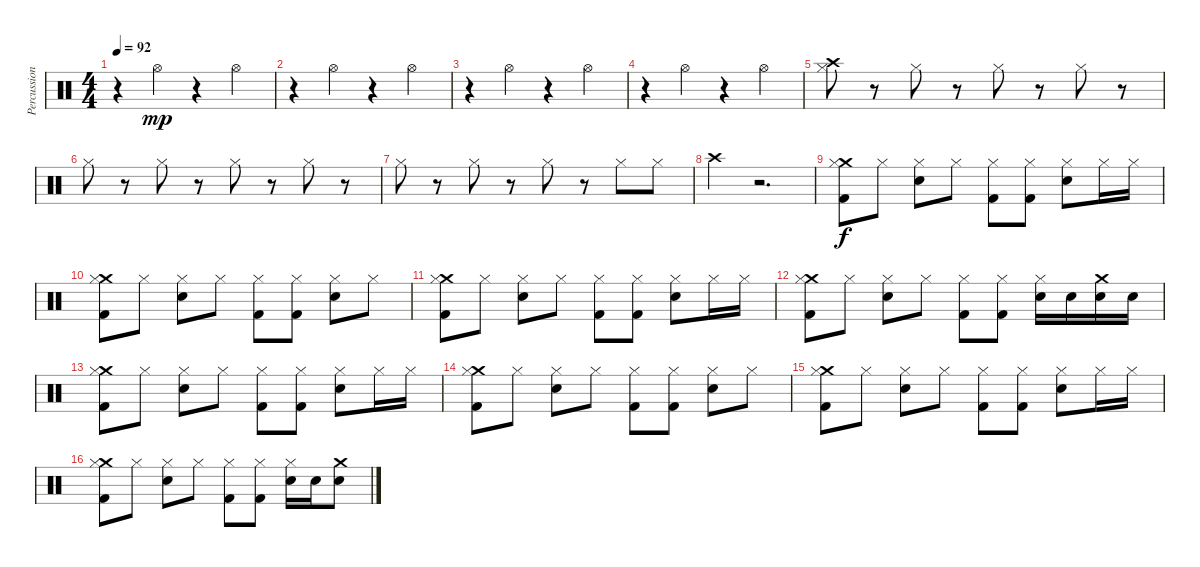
\track ("Percussion" "Percussion") {instrument percussion}
\staff {score}
\articulation defaults
\ts (4 4)
\tempo 92
\clef neutral
\ks c
r.4{dy mp} "Hi-Hat (open)".4 r.4 "Hi-Hat (open)".4 |
r.4 "Hi-Hat (open)".4 r.4 "Hi-Hat (open)".4 |
r.4 "Hi-Hat (open)".4 r.4 "Hi-Hat (open)".4 |
r.4 "Hi-Hat (open)".4 r.4 "Hi-Hat (open)".4 |
("Crash high (hit)" "Hi-Hat (closed)").8 r.8 "Hi-Hat (closed)".8 r.8 "Hi-Hat (closed)".8 r.8 "Hi-Hat (closed)".8 r.8 |
"Hi-Hat (closed)".8 r.8 "Hi-Hat (closed)".8 r.8 "Hi-Hat (closed)".8 r.8 "Hi-Hat (closed)".8 r.8 |
"Hi-Hat (closed)".8 r.8 "Hi-Hat (closed)".8 r.8 "Hi-Hat (closed)".8 r.8 "Hi-Hat (closed)".8 "Hi-Hat (closed)".8 |
"Crash high (hit)".4 r.2{d} |
("Crash medium (hit)" "Hi-Hat (closed)" "Kick (hit) 2").8{dy f} "Hi-Hat (closed)".8 ("Hi-Hat (closed)" "Electric Snare (hit)").8 "Hi-Hat (closed)".8 ("Hi-Hat (closed)" "Kick (hit) 2").8 ("Hi-Hat (closed)" "Kick (hit) 2").8 ("Hi-Hat (closed)" "Electric Snare (hit)").8 "Hi-Hat (closed)".16 "Hi-Hat (closed)".16 |
("Crash medium (hit)" "Hi-Hat (closed)" "Kick (hit) 2").8 "Hi-Hat (closed)".8 ("Hi-Hat (closed)" "Electric Snare (hit)").8 "Hi-Hat (closed)".8 ("Hi-Hat (closed)" "Kick (hit) 2").8 ("Hi-Hat (closed)" "Kick (hit) 2").8 ("Hi-Hat (closed)" "Electric Snare (hit)").8 "Hi-Hat (closed)".8 |
("Crash medium (hit)" "Hi-Hat (closed)" "Kick (hit) 2").8 "Hi-Hat (closed)".8 ("Hi-Hat (closed)" "Electric Snare (hit)").8 "Hi-Hat (closed)".8 ("Hi-Hat (closed)" "Kick (hit) 2").8 ("Hi-Hat (closed)" "Kick (hit) 2").8 ("Hi-Hat (closed)" "Electric Snare (hit)").8 "Hi-Hat (closed)".16 "Hi-Hat (closed)".16 |
("Crash medium (hit)" "Hi-Hat (closed)" "Kick (hit) 2").8 "Hi-Hat (closed)".8 ("Hi-Hat (closed)" "Electric Snare (hit)").8 "Hi-Hat (closed)".8 ("Hi-Hat (closed)" "Kick (hit) 2").8 ("Hi-Hat (closed)" "Kick (hit) 2").8 ("Hi-Hat (closed)" "Electric Snare (hit)").16 "Electric Snare (hit)".16 ("Crash medium (hit)" "Electric Snare (hit)").16 "Electric Snare (hit)".16 |
("Crash medium (hit)" "Hi-Hat (closed)" "Kick (hit) 2").8 "Hi-Hat (closed)".8 ("Hi-Hat (closed)" "Electric Snare (hit)").8 "Hi-Hat (closed)".8 ("Hi-Hat (closed)" "Kick (hit) 2").8 ("Hi-Hat (closed)" "Kick (hit) 2").8 ("Hi-Hat (closed)" "Electric Snare (hit)").8 "Hi-Hat (closed)".16 "Hi-Hat (closed)".16 |
("Crash medium (hit)" "Hi-Hat (closed)" "Kick (hit) 2").8 "Hi-Hat (closed)".8 ("Hi-Hat (closed)" "Electric Snare (hit)").8 "Hi-Hat (closed)".8 ("Hi-Hat (closed)" "Kick (hit) 2").8 ("Hi-Hat (closed)" "Kick (hit) 2").8 ("Hi-Hat (closed)" "Electric Snare (hit)").8 "Hi-Hat (closed)".8 |
("Crash medium (hit)" "Hi-Hat (closed)" "Kick (hit) 2").8 "Hi-Hat (closed)".8 ("Hi-Hat (closed)" "Electric Snare (hit)").8 "Hi-Hat (closed)".8 ("Hi-Hat (closed)" "Kick (hit) 2").8 ("Hi-Hat (closed)" "Kick (hit) 2").8 ("Hi-Hat (closed)" "Electric Snare (hit)").8 "Hi-Hat (closed)".16 "Hi-Hat (closed)".16 |
("Crash medium (hit)" "Hi-Hat (closed)" "Kick (hit) 2").8 "Hi-Hat (closed)".8 ("Hi-Hat (closed)" "Electric Snare (hit)").8 "Hi-Hat (closed)".8 ("Hi-Hat (closed)" "Kick (hit) 2").8 ("Hi-Hat (closed)" "Kick (hit) 2").8 ("Hi-Hat (closed)" "Electric Snare (hit)").16 "Electric Snare (hit)".16 ("Crash medium (hit)" "Electric Snare (hit)").8
